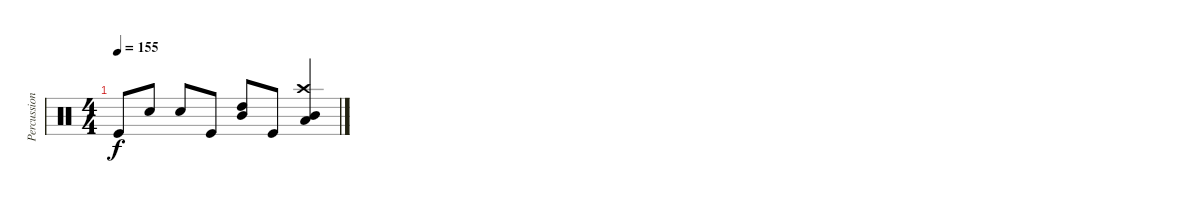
\track ("Percussion" "Percussion") {instrument percussion}
\staff {score}
\articulation defaults
\ts (4 4)
\tempo 155
\clef neutral
\ks c "Kick (hit)".8{dy f} "Snare (hit) 2".8 "Snare (hit) 2".8 "Kick (hit)".8
("High Tom (hit)" "Mid Tom (hit)").8 "Kick (hit)".8 ("Crash high (hit)" "Mid Tom (hit)" "Low Tom (hit)").4
